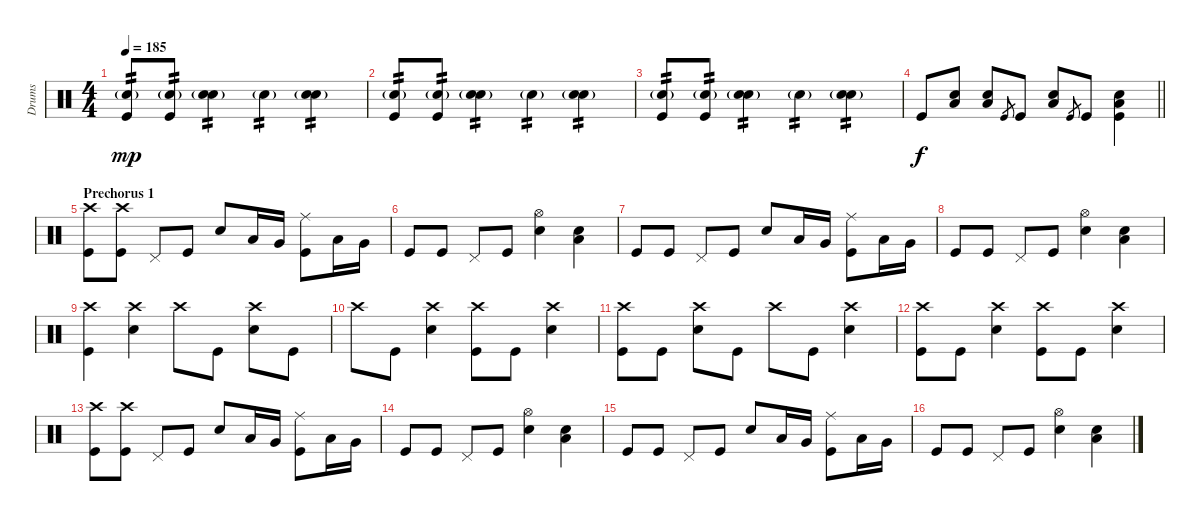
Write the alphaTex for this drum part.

\track ("Drums" "Drums") {instrument percussion}
\staff {score}
\articulation defaults
\ts (4 4)
\tempo 185
\clef neutral
\ks c
("Snare (hit) 2"{g} "Kick (hit)").8{tp 2 dy mp} ("Snare (hit) 2"{g} "Kick (hit)").8{tp 2} ("Snare (hit) 2"{g} "Snare (hit) 2").4{tp 2} "Snare (hit) 2"{g}.4{tp 2} ("Snare (hit) 2"{g} "Snare (hit) 2").4{tp 2} |
("Snare (hit) 2"{g} "Kick (hit)").8{tp 2} ("Snare (hit) 2"{g} "Kick (hit)").8{tp 2} ("Snare (hit) 2"{g} "Snare (hit) 2").4{tp 2} "Snare (hit) 2"{g}.4{tp 2} ("Snare (hit) 2"{g} "Snare (hit) 2").4{tp 2} |
("Snare (hit) 2"{g} "Kick (hit)").8{tp 2} ("Snare (hit) 2"{g} "Kick (hit)").8{tp 2} ("Snare (hit) 2"{g} "Snare (hit) 2").4{tp 2} "Snare (hit) 2"{g}.4{tp 2} ("Snare (hit) 2"{g} "Snare (hit) 2").4{tp 2} |
\barLineRight lightlight "Kick (hit)".8{dy f}
("Snare (hit) 2" "Low Floor Tom (hit)").8 ("Snare (hit) 2" "Low Floor Tom (hit)").8 "Kick (hit)".8{gr} "Kick (hit)".8 ("Snare (hit) 2" "Low Floor Tom (hit)").8 "Kick (hit)".8{gr} "Kick (hit)".8 ("Snare (hit) 2" "Kick (hit)" "Low Floor Tom (hit)").4 |
\section ("" "Prechorus 1")
("Crash high (hit)" "Kick (hit)").8 ("Crash high (hit)" "Kick (hit)").8 "Pedal Hi-Hat (hit)".8 "Kick (hit)".8 "Snare (hit) 2".8 "Low Tom (hit)".16 "Very Low Tom (hit)".16 ("Ride (middle)" "Kick (hit)").8 "Low Tom (hit)".16 "Very Low Tom (hit)".16 |
"Kick (hit)".8 "Kick (hit)".8 "Pedal Hi-Hat (hit)".8 "Kick (hit)".8 ("Hi-Hat (open)" "Snare (hit) 2").4 ("Snare (hit) 2" "Low Floor Tom (hit)").4 |
"Kick (hit)".8 "Kick (hit)".8 "Pedal Hi-Hat (hit)".8 "Kick (hit)".8 "Snare (hit) 2".8 "Low Tom (hit)".16 "Very Low Tom (hit)".16 ("Ride (middle)" "Kick (hit)").8 "Low Tom (hit)".16 "Very Low Tom (hit)".16 |
"Kick (hit)".8 "Kick (hit)".8 "Pedal Hi-Hat (hit)".8 "Kick (hit)".8 ("Hi-Hat (open)" "Snare (hit) 2").4 ("Snare (hit) 2" "Low Floor Tom (hit)").4 |
("Crash high (hit)" "Kick (hit)").4 ("Crash high (hit)" "Snare (hit) 2").4 "Crash high (hit)".8 "Kick (hit)".8 ("Crash high (hit)" "Snare (hit) 2").8 "Kick (hit)".8 |
"Crash high (hit)".8 "Kick (hit)".8 ("Crash high (hit)" "Snare (hit) 2").4 ("Crash high (hit)" "Kick (hit)").8 "Kick (hit)".8 ("Crash high (hit)" "Snare (hit) 2").4 |
("Crash high (hit)" "Kick (hit)").8 "Kick (hit)".8 ("Crash high (hit)" "Snare (hit) 2").8 "Kick (hit)".8 "Crash high (hit)".8 "Kick (hit)".8 ("Crash high (hit)" "Snare (hit) 2").4 |
("Crash high (hit)" "Kick (hit)").8 "Kick (hit)".8 ("Crash high (hit)" "Snare (hit) 2").4 ("Crash high (hit)" "Kick (hit)").8 "Kick (hit)".8 ("Crash high (hit)" "Snare (hit) 2").4 |
("Crash high (hit)" "Kick (hit)").8 ("Crash high (hit)" "Kick (hit)").8 "Pedal Hi-Hat (hit)".8 "Kick (hit)".8 "Snare (hit) 2".8 "Low Tom (hit)".16 "Very Low Tom (hit)".16 ("Ride (middle)" "Kick (hit)").8 "Low Tom (hit)".16 "Very Low Tom (hit)".16 |
"Kick (hit)".8 "Kick (hit)".8 "Pedal Hi-Hat (hit)".8 "Kick (hit)".8 ("Hi-Hat (open)" "Snare (hit) 2").4 ("Snare (hit) 2" "Low Floor Tom (hit)").4 |
"Kick (hit)".8 "Kick (hit)".8 "Pedal Hi-Hat (hit)".8 "Kick (hit)".8 "Snare (hit) 2".8 "Low Tom (hit)".16 "Very Low Tom (hit)".16 ("Ride (middle)" "Kick (hit)").8 "Low Tom (hit)".16 "Very Low Tom (hit)".16 |
"Kick (hit)".8 "Kick (hit)".8 "Pedal Hi-Hat (hit)".8 "Kick (hit)".8 ("Hi-Hat (open)" "Snare (hit) 2").4 ("Snare (hit) 2" "Low Floor Tom (hit)").4
